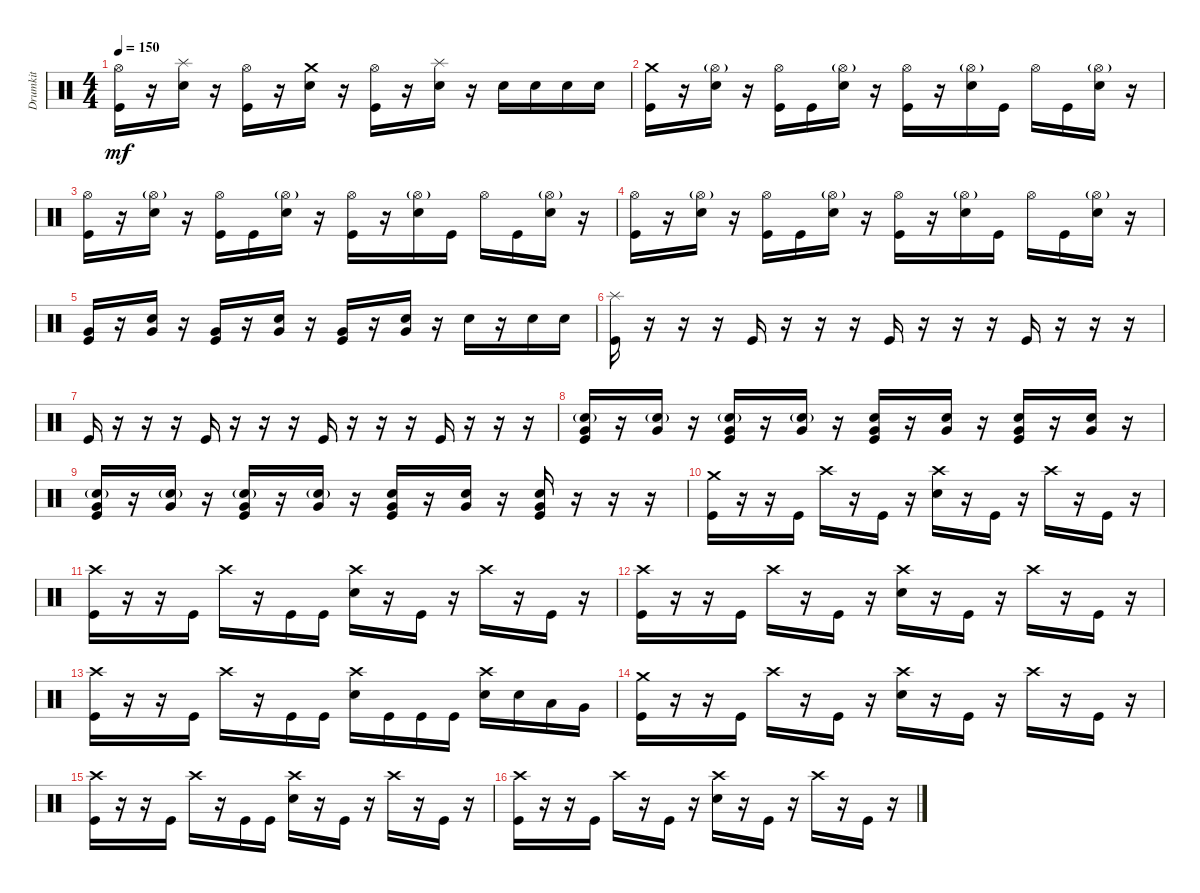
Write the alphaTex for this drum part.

\track ("Drumkit" "Drumkit") {instrument percussion}
\staff {score}
\articulation defaults
\ts (4 4)
\tempo 150
\clef neutral
\ks c
("Kick (hit)" "Hi-Hat (open)").16{dy mf} r.16 ("Snare (hit) 2" "Splash (hit)").16 r.16 ("Hi-Hat (open)" "Kick (hit)").16 r.16 ("Snare (hit) 2" "Crash medium (hit)").16 r.16 ("Hi-Hat (open)" "Kick (hit)").16 r.16 ("Snare (hit) 2" "Splash (hit)").16 r.16 "Snare (hit) 2".16 "Snare (hit) 2".16 "Snare (hit) 2".16 "Snare (hit) 2".16 |
("Kick (hit)" "Crash medium (hit)").16 r.16 ("Hi-Hat (open)"{g} "Snare (hit) 2").16 r.16 ("Hi-Hat (open)" "Kick (hit)").16 "Kick (hit)".16 ("Hi-Hat (open)"{g} "Snare (hit) 2").16 r.16 ("Hi-Hat (open)" "Kick (hit)").16 r.16 ("Hi-Hat (open)"{g} "Snare (hit) 2").16 "Kick (hit)".16 "Hi-Hat (open)".16 "Kick (hit)".16 ("Hi-Hat (open)"{g} "Snare (hit) 2").16 r.16 |
("Kick (hit)" "Hi-Hat (open)").16 r.16 ("Hi-Hat (open)"{g} "Snare (hit) 2").16 r.16 ("Hi-Hat (open)" "Kick (hit)").16 "Kick (hit)".16 ("Hi-Hat (open)"{g} "Snare (hit) 2").16 r.16 ("Hi-Hat (open)" "Kick (hit)").16 r.16 ("Hi-Hat (open)"{g} "Snare (hit) 2").16 "Kick (hit)".16 "Hi-Hat (open)".16 "Kick (hit)".16 ("Hi-Hat (open)"{g} "Snare (hit) 2").16 r.16 |
("Kick (hit)" "Hi-Hat (open)").16 r.16 ("Hi-Hat (open)"{g} "Snare (hit) 2").16 r.16 ("Hi-Hat (open)" "Kick (hit)").16 "Kick (hit)".16 ("Hi-Hat (open)"{g} "Snare (hit) 2").16 r.16 ("Hi-Hat (open)" "Kick (hit)").16 r.16 ("Hi-Hat (open)"{g} "Snare (hit) 2").16 "Kick (hit)".16 "Hi-Hat (open)".16 "Kick (hit)".16 ("Hi-Hat (open)"{g} "Snare (hit) 2").16 r.16 |
("Kick (hit)" "Very Low Tom (hit)").16 r.16 ("Snare (hit) 2" "Very Low Tom (hit)").16 r.16 ("Kick (hit)" "Very Low Tom (hit)").16 r.16 ("Snare (hit) 2" "Very Low Tom (hit)").16 r.16 ("Kick (hit)" "Very Low Tom (hit)").16 r.16 ("Snare (hit) 2" "Very Low Tom (hit)").16 r.16 "Snare (hit) 2".16 r.16 "Snare (hit) 2".16 "Snare (hit) 2".16 |
("Splash (hit)" "Kick (hit)").16 r.16 r.16 r.16 "Kick (hit)".16 r.16 r.16 r.16 "Kick (hit)".16 r.16 r.16 r.16 "Kick (hit)".16 r.16 r.16 r.16 |
"Kick (hit)".16 r.16 r.16 r.16 "Kick (hit)".16 r.16 r.16 r.16 "Kick (hit)".16 r.16 r.16 r.16 "Kick (hit)".16 r.16 r.16 r.16 |
("Kick (hit)" "Snare (hit) 2"{g} "Very Low Tom (hit)").16 r.16 ("Very Low Tom (hit)" "Snare (hit) 2"{g}).16 r.16 ("Kick (hit)" "Snare (hit) 2"{g} "Very Low Tom (hit)").16 r.16 ("Very Low Tom (hit)" "Snare (hit) 2"{g}).16 r.16 ("Kick (hit)" "Snare (hit) 2" "Very Low Tom (hit)").16 r.16 ("Very Low Tom (hit)" "Snare (hit) 2").16 r.16 ("Kick (hit)" "Snare (hit) 2" "Very Low Tom (hit)").16 r.16 ("Snare (hit) 2" "Very Low Tom (hit)").16 r.16 |
("Kick (hit)" "Snare (hit) 2"{g} "Very Low Tom (hit)").16 r.16 ("Snare (hit) 2"{g} "Very Low Tom (hit)").16 r.16 ("Kick (hit)" "Snare (hit) 2"{g} "Very Low Tom (hit)").16 r.16 ("Snare (hit) 2"{g} "Very Low Tom (hit)").16 r.16 ("Kick (hit)" "Snare (hit) 2" "Very Low Tom (hit)").16 r.16 ("Snare (hit) 2" "Very Low Tom (hit)").16 r.16 ("Kick (hit)" "Snare (hit) 2" "Very Low Tom (hit)").16 r.16 r.16 r.16 |
("Kick (hit)" "Crash medium (hit)").16 r.16 r.16 "Kick (hit)".16 "Crash high (hit)".16 r.16 "Kick (hit)".16 r.16 ("Snare (hit) 2" "Crash high (hit)").16 r.16 "Kick (hit)".16 r.16 "Crash high (hit)".16 r.16 "Kick (hit)".16 r.16 |
("Kick (hit)" "Crash high (hit)").16 r.16 r.16 "Kick (hit)".16 "Crash high (hit)".16 r.16 "Kick (hit)".16 "Kick (hit)".16 ("Snare (hit) 2" "Crash high (hit)").16 r.16 "Kick (hit)".16 r.16 "Crash high (hit)".16 r.16 "Kick (hit)".16 r.16 |
("Kick (hit)" "Crash high (hit)").16 r.16 r.16 "Kick (hit)".16 "Crash high (hit)".16 r.16 "Kick (hit)".16 r.16 ("Snare (hit) 2" "Crash high (hit)").16 r.16 "Kick (hit)".16 r.16 "Crash high (hit)".16 r.16 "Kick (hit)".16 r.16 |
("Kick (hit)" "Crash high (hit)").16 r.16 r.16 "Kick (hit)".16 "Crash high (hit)".16 r.16 "Kick (hit)".16 "Kick (hit)".16 ("Snare (hit) 2" "Crash high (hit)").16 "Kick (hit)".16 "Kick (hit)".16 "Kick (hit)".16 ("Crash high (hit)" "Snare (hit) 2").16 "Snare (hit) 2".16 "Low Tom (hit)".16 "Very Low Tom (hit)".16 |
("Kick (hit)" "Crash medium (hit)").16 r.16 r.16 "Kick (hit)".16 "Crash high (hit)".16 r.16 "Kick (hit)".16 r.16 ("Snare (hit) 2" "Crash high (hit)").16 r.16 "Kick (hit)".16 r.16 "Crash high (hit)".16 r.16 "Kick (hit)".16 r.16 |
("Kick (hit)" "Crash high (hit)").16 r.16 r.16 "Kick (hit)".16 "Crash high (hit)".16 r.16 "Kick (hit)".16 "Kick (hit)".16 ("Snare (hit) 2" "Crash high (hit)").16 r.16 "Kick (hit)".16 r.16 "Crash high (hit)".16 r.16 "Kick (hit)".16 r.16 |
("Kick (hit)" "Crash high (hit)").16 r.16 r.16 "Kick (hit)".16 "Crash high (hit)".16 r.16 "Kick (hit)".16 r.16 ("Snare (hit) 2" "Crash high (hit)").16 r.16 "Kick (hit)".16 r.16 "Crash high (hit)".16 r.16 "Kick (hit)".16 r.16
